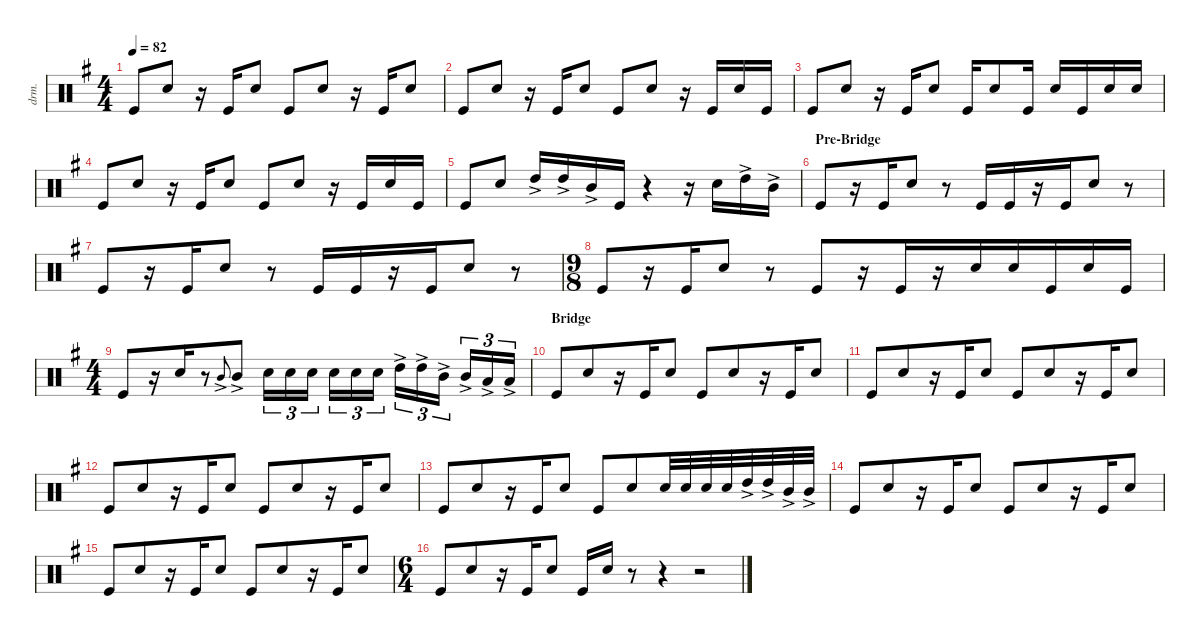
\defaultSystemsLayout 2
\hideDynamics
\bracketExtendMode nobrackets
\otherSystemsTrackNameOrientation horizontal
\track ("Drums" "drm.") {instrument percussion}
\staff {score}
\articulation defaults
\ts (4 4)
\tempo 82
\clef neutral
\ks g "Kick (hit)".8{dy f} "Snare (hit) 2".8
r.16 "Kick (hit)".16 "Snare (hit) 2".8 "Kick (hit)".8 "Snare (hit) 2".8 r.16 "Kick (hit)".16 "Snare (hit) 2".8 |
"Kick (hit)".8 "Snare (hit) 2".8 r.16 "Kick (hit)".16 "Snare (hit) 2".8 "Kick (hit)".8 "Snare (hit) 2".8 r.16 "Kick (hit)".16 "Snare (hit) 2".16 "Kick (hit)".16 |
"Kick (hit)".8 "Snare (hit) 2".8 r.16 "Kick (hit)".16 "Snare (hit) 2".8 "Kick (hit)".16 "Snare (hit) 2".8 "Kick (hit)".16 "Snare (hit) 2".16 "Kick (hit)".16 "Snare (hit) 2".16 "Snare (hit) 2".16 |
"Kick (hit)".8 "Snare (hit) 2".8 r.16 "Kick (hit)".16 "Snare (hit) 2".8 "Kick (hit)".8 "Snare (hit) 2".8 r.16 "Kick (hit)".16 "Snare (hit) 2".16 "Kick (hit)".16 |
"Kick (hit)".8 "Snare (hit) 2".8 "High Tom (hit)"{ac}.16 "High Tom (hit)"{ac}.16 "Mid Tom (hit)"{ac}.16 "Kick (hit)".16 r.4 r.16 "Snare (hit) 2".16 "High Tom (hit)"{ac}.16 "Mid Tom (hit)"{ac}.16 |
\beaming (8 4 4)
\section ("" "Pre-Bridge")
"Kick (hit)".8 r.16 "Kick (hit)".16 "Snare (hit) 2".8 r.8 "Kick (hit)".16 "Kick (hit)".16 r.16 "Kick (hit)".16 "Snare (hit) 2".8 r.8 |
"Kick (hit)".8 r.16 "Kick (hit)".16 "Snare (hit) 2".8 r.8 "Kick (hit)".16 "Kick (hit)".16 r.16 "Kick (hit)".16 "Snare (hit) 2".8 r.8 |
\ts (9 8)
\beaming (8 4 5)
"Kick (hit)".8 r.16 "Kick (hit)".16 "Snare (hit) 2".8 r.8 "Kick (hit)".8 r.16 "Kick (hit)".16 r.16 "Snare (hit) 2".16 "Snare (hit) 2".16 "Kick (hit)".16 "Snare (hit) 2".16 "Kick (hit)".16 |
\ts (4 4)
\beaming (8 4 4)
"Kick (hit)".8 r.16 "Snare (hit) 2".16 r.8 "Mid Tom (hit)"{ac}.8{gr onbeat} "Mid Tom (hit)"{ac}.8 "Snare (hit) 2".16{tu (3 2)} "Snare (hit) 2".16{tu (3 2)} "Snare (hit) 2".16{tu (3 2)} "Snare (hit) 2".16{tu (3 2)} "Snare (hit) 2".16{tu (3 2)} "Snare (hit) 2".16{tu (3 2)} "High Tom (hit)"{ac}.16{tu (3 2)} "High Tom (hit)"{ac}.16{tu (3 2)} "Mid Tom (hit)"{ac}.16{tu (3 2)} "Mid Tom (hit)"{ac}.16{tu (3 2)} "Low Tom (hit)"{ac}.16{tu (3 2)} "Low Tom (hit)"{ac}.16{tu (3 2)} |
\section ("" "Bridge")
"Kick (hit)".8 "Snare (hit) 2".8 r.16 "Kick (hit)".16 "Snare (hit) 2".8 "Kick (hit)".8 "Snare (hit) 2".8 r.16 "Kick (hit)".16 "Snare (hit) 2".8 |
"Kick (hit)".8 "Snare (hit) 2".8 r.16 "Kick (hit)".16 "Snare (hit) 2".8 "Kick (hit)".8 "Snare (hit) 2".8 r.16 "Kick (hit)".16 "Snare (hit) 2".8 |
"Kick (hit)".8 "Snare (hit) 2".8 r.16 "Kick (hit)".16 "Snare (hit) 2".8 "Kick (hit)".8 "Snare (hit) 2".8 r.16 "Kick (hit)".16 "Snare (hit) 2".8 |
"Kick (hit)".8 "Snare (hit) 2".8 r.16 "Kick (hit)".16 "Snare (hit) 2".8 "Kick (hit)".8 "Snare (hit) 2".8 "Snare (hit) 2".32 "Snare (hit) 2".32 "Snare (hit) 2".32 "Snare (hit) 2".32 "High Tom (hit)"{ac}.32 "High Tom (hit)"{ac}.32 "Mid Tom (hit)"{ac}.32 "Mid Tom (hit)"{ac}.32 |
"Kick (hit)".8 "Snare (hit) 2".8 r.16 "Kick (hit)".16 "Snare (hit) 2".8 "Kick (hit)".8 "Snare (hit) 2".8 r.16 "Kick (hit)".16 "Snare (hit) 2".8 |
"Kick (hit)".8 "Snare (hit) 2".8 r.16 "Kick (hit)".16 "Snare (hit) 2".8 "Kick (hit)".8 "Snare (hit) 2".8 r.16 "Kick (hit)".16 "Snare (hit) 2".8 |
\ts (6 4)
\beaming (8 4 4 4)
"Kick (hit)".8 "Snare (hit) 2".8 r.16 "Kick (hit)".16 "Snare (hit) 2".8 "Kick (hit)".16 "Snare (hit) 2".16 r.8 r.4 r.2
